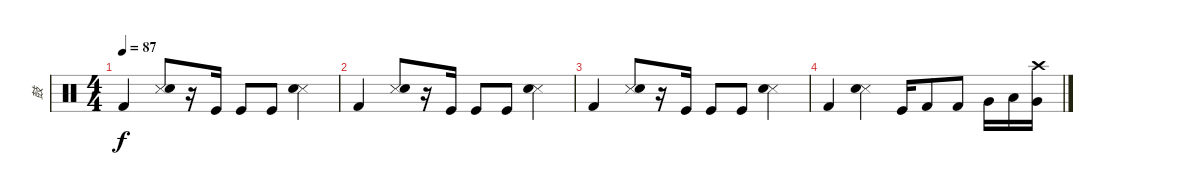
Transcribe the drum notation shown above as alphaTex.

\track ("鼓" "鼓") {instrument percussion}
\staff {score}
\articulation defaults
\ts (4 4)
\tempo 87
\clef neutral
\ks c "Kick (hit) 2".4{dy f}
("Snare (side stick) 3" "Electric Snare (hit)").8 r.16 "Kick (hit)".16 "Kick (hit)".8 "Kick (hit)".8 ("Snare (side stick) 3" "Electric Snare (hit)").4 |
"Kick (hit) 2".4 ("Snare (side stick) 3" "Electric Snare (hit)").8 r.16 "Kick (hit)".16 "Kick (hit)".8 "Kick (hit)".8 ("Snare (side stick) 3" "Electric Snare (hit)").4 |
"Kick (hit) 2".4 ("Snare (side stick) 3" "Electric Snare (hit)").8 r.16 "Kick (hit)".16 "Kick (hit)".8 "Kick (hit)".8 ("Snare (side stick) 3" "Electric Snare (hit)").4 |
"Kick (hit) 2".4 ("Snare (side stick) 3" "Electric Snare (hit)").4 "Kick (hit)".16 "Kick (hit) 2".8 "Kick (hit) 2".8 "Very Low Tom (hit)".16 "Low Tom (hit)".16 ("Crash high (hit)" "Very Low Tom (hit)").16
